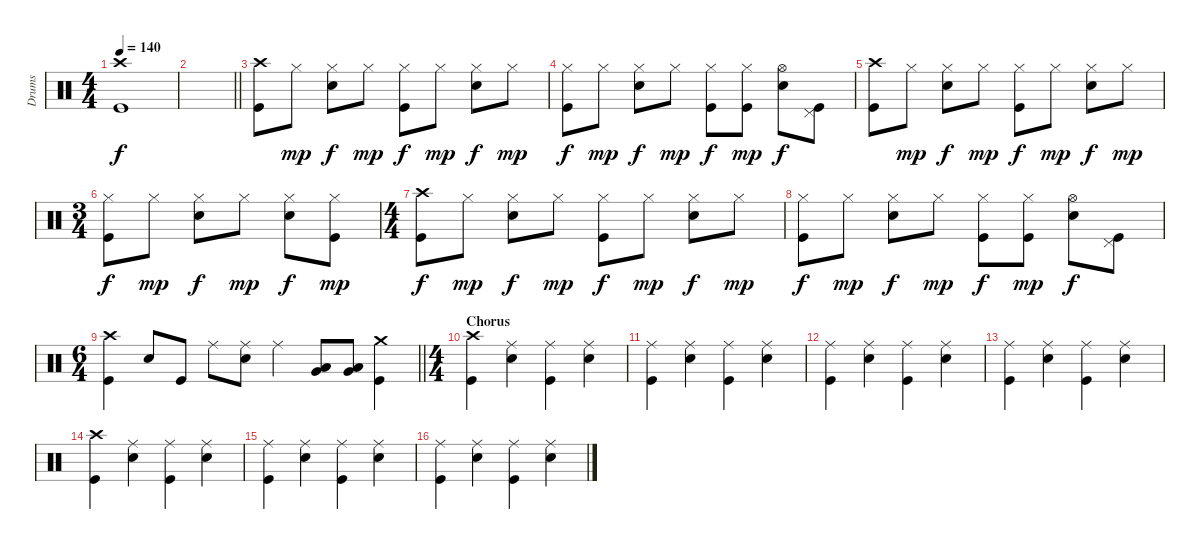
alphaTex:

\track ("Drums" "Drums") {instrument percussion}
\staff {score}
\articulation defaults
\ts (4 4)
\tempo 140
\clef neutral
\ks c
("Crash high (hit)" "Kick (hit)").1{dy f} |
\barLineRight lightlight
|
("Crash high (hit)" "Kick (hit)").8 "Hi-Hat (closed)".8{dy mp} ("Hi-Hat (closed)" "Electric Snare (hit)").8{dy f} "Hi-Hat (closed)".8{dy mp} ("Hi-Hat (closed)" "Kick (hit)").8{dy f} "Hi-Hat (closed)".8{dy mp} ("Hi-Hat (closed)" "Electric Snare (hit)").8{dy f} "Hi-Hat (closed)".8{dy mp} |
("Hi-Hat (closed)" "Kick (hit)").8{dy f} "Hi-Hat (closed)".8{dy mp} ("Hi-Hat (closed)" "Electric Snare (hit)").8{dy f} "Hi-Hat (closed)".8{dy mp} ("Hi-Hat (closed)" "Kick (hit)").8{dy f} ("Hi-Hat (closed)" "Kick (hit)").8{dy mp} ("Hi-Hat (open)" "Electric Snare (hit)").8{dy f} ("Pedal Hi-Hat (hit)" "Kick (hit)").8 |
("Crash high (hit)" "Kick (hit)").8 "Hi-Hat (closed)".8{dy mp} ("Hi-Hat (closed)" "Electric Snare (hit)").8{dy f} "Hi-Hat (closed)".8{dy mp} ("Hi-Hat (closed)" "Kick (hit)").8{dy f} "Hi-Hat (closed)".8{dy mp} ("Hi-Hat (closed)" "Electric Snare (hit)").8{dy f} "Hi-Hat (closed)".8{dy mp} |
\ts (3 4)
("Hi-Hat (closed)" "Kick (hit)").8{dy f} "Hi-Hat (closed)".8{dy mp} ("Hi-Hat (closed)" "Electric Snare (hit)").8{dy f} "Hi-Hat (closed)".8{dy mp} ("Hi-Hat (closed)" "Electric Snare (hit)").8{dy f} ("Hi-Hat (closed)" "Kick (hit)").8{dy mp} |
\ts (4 4)
("Crash high (hit)" "Kick (hit)").8{dy f} "Hi-Hat (closed)".8{dy mp} ("Hi-Hat (closed)" "Electric Snare (hit)").8{dy f} "Hi-Hat (closed)".8{dy mp} ("Hi-Hat (closed)" "Kick (hit)").8{dy f} "Hi-Hat (closed)".8{dy mp} ("Hi-Hat (closed)" "Electric Snare (hit)").8{dy f} "Hi-Hat (closed)".8{dy mp} |
("Hi-Hat (closed)" "Kick (hit)").8{dy f} "Hi-Hat (closed)".8{dy mp} ("Hi-Hat (closed)" "Electric Snare (hit)").8{dy f} "Hi-Hat (closed)".8{dy mp} ("Hi-Hat (closed)" "Kick (hit)").8{dy f} ("Hi-Hat (closed)" "Kick (hit)").8{dy mp} ("Hi-Hat (open)" "Electric Snare (hit)").8{dy f} ("Pedal Hi-Hat (hit)" "Kick (hit)").8 |
\ts (6 4)
\barLineRight lightlight
("Crash high (hit)" "Kick (hit)").4 "Electric Snare (hit)".8 "Kick (hit)".8 "Ride (middle)".8 ("Ride (middle)" "Electric Snare (hit)").8 "Ride (middle)".4 ("Very Low Tom (hit)" "Low Tom (hit)").8 ("Very Low Tom (hit)" "Low Tom (hit)").8 ("Crash medium (hit)" "Kick (hit)").4 |
\ts (4 4)
\section ("" "Chorus")
("Crash high (hit)" "Kick (hit)").4 ("Ride (middle)" "Electric Snare (hit)").4 ("Ride (middle)" "Kick (hit)").4 ("Ride (middle)" "Electric Snare (hit)").4 |
("Ride (middle)" "Kick (hit)").4 ("Ride (middle)" "Electric Snare (hit)").4 ("Ride (middle)" "Kick (hit)").4 ("Ride (middle)" "Electric Snare (hit)").4 |
("Ride (middle)" "Kick (hit)").4 ("Ride (middle)" "Electric Snare (hit)").4 ("Ride (middle)" "Kick (hit)").4 ("Ride (middle)" "Electric Snare (hit)").4 |
("Ride (middle)" "Kick (hit)").4 ("Ride (middle)" "Electric Snare (hit)").4 ("Ride (middle)" "Kick (hit)").4 ("Ride (middle)" "Electric Snare (hit)").4 |
("Crash high (hit)" "Kick (hit)").4 ("Ride (middle)" "Electric Snare (hit)").4 ("Ride (middle)" "Kick (hit)").4 ("Ride (middle)" "Electric Snare (hit)").4 |
("Ride (middle)" "Kick (hit)").4 ("Ride (middle)" "Electric Snare (hit)").4 ("Ride (middle)" "Kick (hit)").4 ("Ride (middle)" "Electric Snare (hit)").4 |
("Ride (middle)" "Kick (hit)").4 ("Ride (middle)" "Electric Snare (hit)").4 ("Ride (middle)" "Kick (hit)").4 ("Ride (middle)" "Electric Snare (hit)").4
